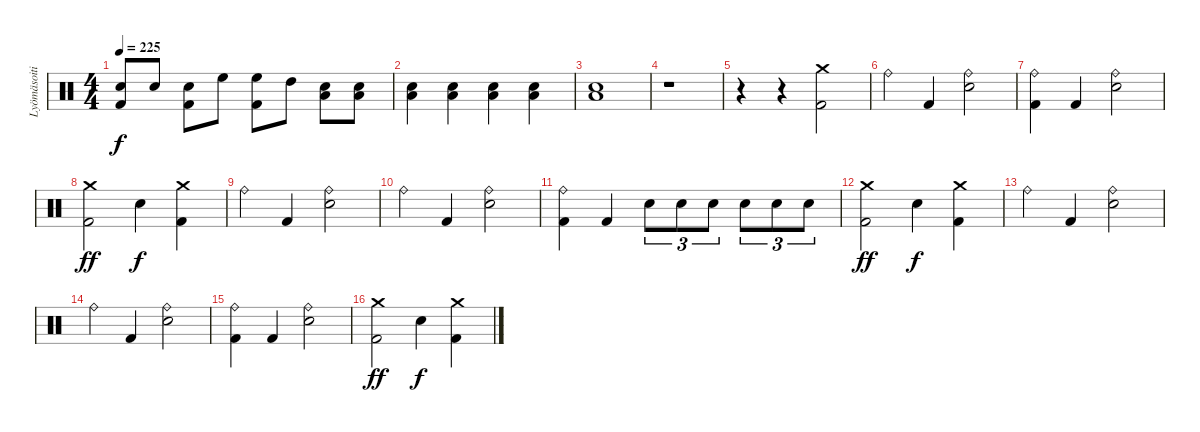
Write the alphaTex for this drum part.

\track ("Lyömäsoitin" "Lyömäsoiti") {instrument percussion}
\staff {score}
\articulation defaults
\ts (4 4)
\tempo 225
\clef neutral
\ks c
("Snare (hit) 2" "Kick (hit) 2").8{dy f} "Snare (hit) 2".8 ("Snare (hit) 2" "Kick (hit) 2").8 "High Floor Tom (hit)".8 ("High Floor Tom (hit)" "Kick (hit) 2").8 "High Tom (hit)".8 ("Snare (hit) 2" "Low Floor Tom (hit)").8 ("Snare (hit) 2" "Low Floor Tom (hit)").8 |
("Snare (hit) 2" "Low Floor Tom (hit)").4 ("Snare (hit) 2" "Low Floor Tom (hit)").4 ("Snare (hit) 2" "Low Floor Tom (hit)").4 ("Snare (hit) 2" "Low Floor Tom (hit)").4 |
("Snare (hit) 2" "Low Floor Tom (hit)").1 |
r.1 |
r.4 r.4 ("Crash medium (hit)" "Kick (hit) 2").2 |
"Ride (bell)".4 "Kick (hit) 2".4 ("Ride (bell)" "Snare (hit) 2").2 |
("Ride (bell)" "Kick (hit) 2").4 "Kick (hit) 2".4 ("Ride (bell)" "Snare (hit) 2").2 |
("Crash medium (hit)" "Kick (hit) 2").2{dy ff} "Snare (hit) 2".4{dy f} ("Crash medium (hit)" "Kick (hit) 2").4 |
"Ride (bell)".4 "Kick (hit) 2".4 ("Ride (bell)" "Snare (hit) 2").2 |
"Ride (bell)".4 "Kick (hit) 2".4 ("Ride (bell)" "Snare (hit) 2").2 |
("Ride (bell)" "Kick (hit) 2").4 "Kick (hit) 2".4 "Snare (hit) 2".8{tu (3 2)} "Snare (hit) 2".8{tu (3 2)} "Snare (hit) 2".8{tu (3 2)} "Snare (hit) 2".8{tu (3 2)} "Snare (hit) 2".8{tu (3 2)} "Snare (hit) 2".8{tu (3 2)} |
("Crash medium (hit)" "Kick (hit) 2").2{dy ff} "Snare (hit) 2".4{dy f} ("Crash medium (hit)" "Kick (hit) 2").4 |
"Ride (bell)".4 "Kick (hit) 2".4 ("Ride (bell)" "Snare (hit) 2").2 |
"Ride (bell)".4 "Kick (hit) 2".4 ("Ride (bell)" "Snare (hit) 2").2 |
("Ride (bell)" "Kick (hit) 2").4 "Kick (hit) 2".4 ("Ride (bell)" "Snare (hit) 2").2 |
("Crash medium (hit)" "Kick (hit) 2").2{dy ff} "Snare (hit) 2".4{dy f} ("Crash medium (hit)" "Kick (hit) 2").4
